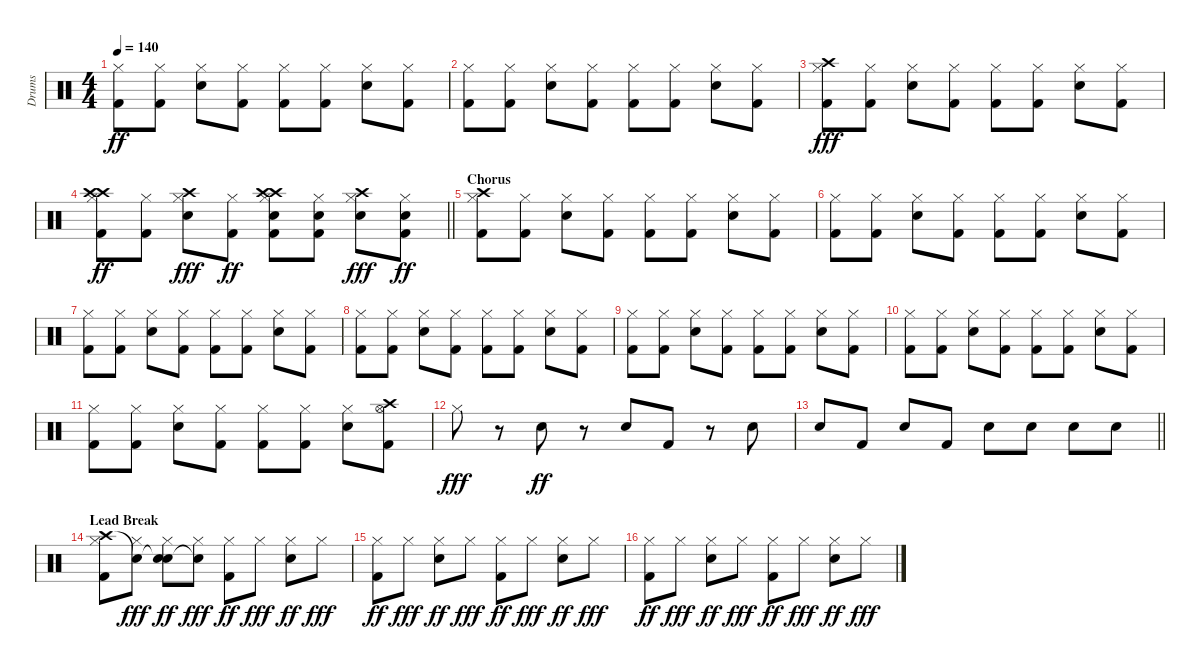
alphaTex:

\track ("Drums" "Drums") {instrument percussion}
\staff {score}
\articulation defaults
\ts (4 4)
\tempo 140
\clef neutral
\ks c
("Hi-Hat (closed)" "Kick (hit) 2").8{dy ff} ("Hi-Hat (closed)" "Kick (hit) 2").8 ("Hi-Hat (closed)" "Snare (hit) 2").8 ("Hi-Hat (closed)" "Kick (hit) 2").8 ("Hi-Hat (closed)" "Kick (hit) 2").8 ("Hi-Hat (closed)" "Kick (hit) 2").8 ("Hi-Hat (closed)" "Snare (hit) 2").8 ("Hi-Hat (closed)" "Kick (hit) 2").8 |
("Hi-Hat (closed)" "Kick (hit) 2").8 ("Hi-Hat (closed)" "Kick (hit) 2").8 ("Hi-Hat (closed)" "Snare (hit) 2").8 ("Hi-Hat (closed)" "Kick (hit) 2").8 ("Hi-Hat (closed)" "Kick (hit) 2").8 ("Hi-Hat (closed)" "Kick (hit) 2").8 ("Hi-Hat (closed)" "Snare (hit) 2").8 ("Hi-Hat (closed)" "Kick (hit) 2").8 |
("Crash high (hit)" "Hi-Hat (closed)" "Kick (hit) 2").8{dy fff} ("Hi-Hat (closed)" "Kick (hit) 2").8 ("Hi-Hat (closed)" "Snare (hit) 2").8 ("Hi-Hat (closed)" "Kick (hit) 2").8 ("Hi-Hat (closed)" "Kick (hit) 2").8 ("Hi-Hat (closed)" "Kick (hit) 2").8 ("Hi-Hat (closed)" "Snare (hit) 2").8 ("Hi-Hat (closed)" "Kick (hit) 2").8 |
\barLineRight lightlight
("Crash high (hit)" "Hi-Hat (closed)" "Crash high (hit)" "Kick (hit) 2").8{dy ff} ("Hi-Hat (closed)" "Kick (hit) 2").8 ("Crash high (hit)" "Hi-Hat (closed)" "Snare (hit) 2").8{dy fff} ("Hi-Hat (closed)" "Kick (hit) 2").8{dy ff} ("Crash high (hit)" "Hi-Hat (closed)" "Crash high (hit)" "Snare (hit) 2" "Kick (hit) 2").8 ("Hi-Hat (closed)" "Snare (hit) 2" "Kick (hit) 2").8 ("Crash high (hit)" "Hi-Hat (closed)" "Snare (hit) 2").8{dy fff} ("Hi-Hat (closed)" "Snare (hit) 2" "Kick (hit) 2").8{dy ff} |
\section ("" "Chorus")
("Crash high (hit)" "Hi-Hat (closed)" "Kick (hit) 2").8{volume 12} ("Hi-Hat (closed)" "Kick (hit) 2").8 ("Hi-Hat (closed)" "Snare (hit) 2").8 ("Hi-Hat (closed)" "Kick (hit) 2").8 ("Hi-Hat (closed)" "Kick (hit) 2").8 ("Hi-Hat (closed)" "Kick (hit) 2").8 ("Hi-Hat (closed)" "Snare (hit) 2").8 ("Hi-Hat (closed)" "Kick (hit) 2").8 |
("Hi-Hat (closed)" "Kick (hit) 2").8 ("Hi-Hat (closed)" "Kick (hit) 2").8 ("Hi-Hat (closed)" "Snare (hit) 2").8 ("Hi-Hat (closed)" "Kick (hit) 2").8 ("Hi-Hat (closed)" "Kick (hit) 2").8 ("Hi-Hat (closed)" "Kick (hit) 2").8 ("Hi-Hat (closed)" "Snare (hit) 2").8 ("Hi-Hat (closed)" "Kick (hit) 2").8 |
("Hi-Hat (closed)" "Kick (hit) 2").8 ("Hi-Hat (closed)" "Kick (hit) 2").8 ("Hi-Hat (closed)" "Snare (hit) 2").8 ("Hi-Hat (closed)" "Kick (hit) 2").8 ("Hi-Hat (closed)" "Kick (hit) 2").8 ("Hi-Hat (closed)" "Kick (hit) 2").8 ("Hi-Hat (closed)" "Snare (hit) 2").8 ("Hi-Hat (closed)" "Kick (hit) 2").8 |
("Hi-Hat (closed)" "Kick (hit) 2").8 ("Hi-Hat (closed)" "Kick (hit) 2").8 ("Hi-Hat (closed)" "Snare (hit) 2").8 ("Hi-Hat (closed)" "Kick (hit) 2").8 ("Hi-Hat (closed)" "Kick (hit) 2").8 ("Hi-Hat (closed)" "Kick (hit) 2").8 ("Hi-Hat (closed)" "Snare (hit) 2").8 ("Hi-Hat (closed)" "Kick (hit) 2").8 |
("Hi-Hat (closed)" "Kick (hit) 2").8 ("Hi-Hat (closed)" "Kick (hit) 2").8 ("Hi-Hat (closed)" "Snare (hit) 2").8 ("Hi-Hat (closed)" "Kick (hit) 2").8 ("Hi-Hat (closed)" "Kick (hit) 2").8 ("Hi-Hat (closed)" "Kick (hit) 2").8 ("Hi-Hat (closed)" "Snare (hit) 2").8 ("Hi-Hat (closed)" "Kick (hit) 2").8 |
("Hi-Hat (closed)" "Kick (hit) 2").8 ("Hi-Hat (closed)" "Kick (hit) 2").8 ("Hi-Hat (closed)" "Snare (hit) 2").8 ("Hi-Hat (closed)" "Kick (hit) 2").8 ("Hi-Hat (closed)" "Kick (hit) 2").8 ("Hi-Hat (closed)" "Kick (hit) 2").8 ("Hi-Hat (closed)" "Snare (hit) 2").8 ("Hi-Hat (closed)" "Kick (hit) 2").8 |
("Hi-Hat (closed)" "Kick (hit) 2").8 ("Hi-Hat (closed)" "Kick (hit) 2").8 ("Hi-Hat (closed)" "Snare (hit) 2").8 ("Hi-Hat (closed)" "Kick (hit) 2").8 ("Hi-Hat (closed)" "Kick (hit) 2").8 ("Hi-Hat (closed)" "Kick (hit) 2").8 ("Hi-Hat (closed)" "Snare (hit) 2").8 ("Crash high (hit)" "Hi-Hat (open)" "Kick (hit) 2").8 |
"Hi-Hat (closed)".8{dy fff} r.8 "Snare (hit) 2".8{dy ff} r.8 "Snare (hit) 2".8 "Kick (hit) 2".8 r.8 "Snare (hit) 2".8 |
\barLineRight lightlight "Snare (hit) 2".8 "Kick (hit) 2".8 "Snare (hit) 2".8 "Kick (hit) 2".8 "Snare (hit) 2".8 "Snare (hit) 2".8 "Snare (hit) 2".8 "Snare (hit) 2".8
|
\section ("" "Lead Break")
("Crash high (hit)" "Hi-Hat (closed)" "Kick (hit) 2").8 ("Snare (hit)"{t} "Hi-Hat (closed)").8{dy fff} ("Snare (hit)"{t} "Hi-Hat (closed)" "Snare (hit) 2").8{dy ff} ("Snare (hit)"{t} "Hi-Hat (closed)").8{dy fff} ("Hi-Hat (closed)" "Kick (hit) 2").8{dy ff} "Hi-Hat (closed)".8{dy fff} ("Hi-Hat (closed)" "Snare (hit) 2").8{dy ff} "Hi-Hat (closed)".8{dy fff} |
("Hi-Hat (closed)" "Kick (hit) 2").8{dy ff} "Hi-Hat (closed)".8{dy fff} ("Hi-Hat (closed)" "Snare (hit) 2").8{dy ff} "Hi-Hat (closed)".8{dy fff} ("Hi-Hat (closed)" "Kick (hit) 2").8{dy ff} "Hi-Hat (closed)".8{dy fff} ("Hi-Hat (closed)" "Snare (hit) 2").8{dy ff} "Hi-Hat (closed)".8{dy fff} |
("Hi-Hat (closed)" "Kick (hit) 2").8{dy ff} "Hi-Hat (closed)".8{dy fff} ("Hi-Hat (closed)" "Snare (hit) 2").8{dy ff} "Hi-Hat (closed)".8{dy fff} ("Hi-Hat (closed)" "Kick (hit) 2").8{dy ff} "Hi-Hat (closed)".8{dy fff} ("Hi-Hat (closed)" "Snare (hit) 2").8{dy ff} "Hi-Hat (closed)".8{dy fff}
